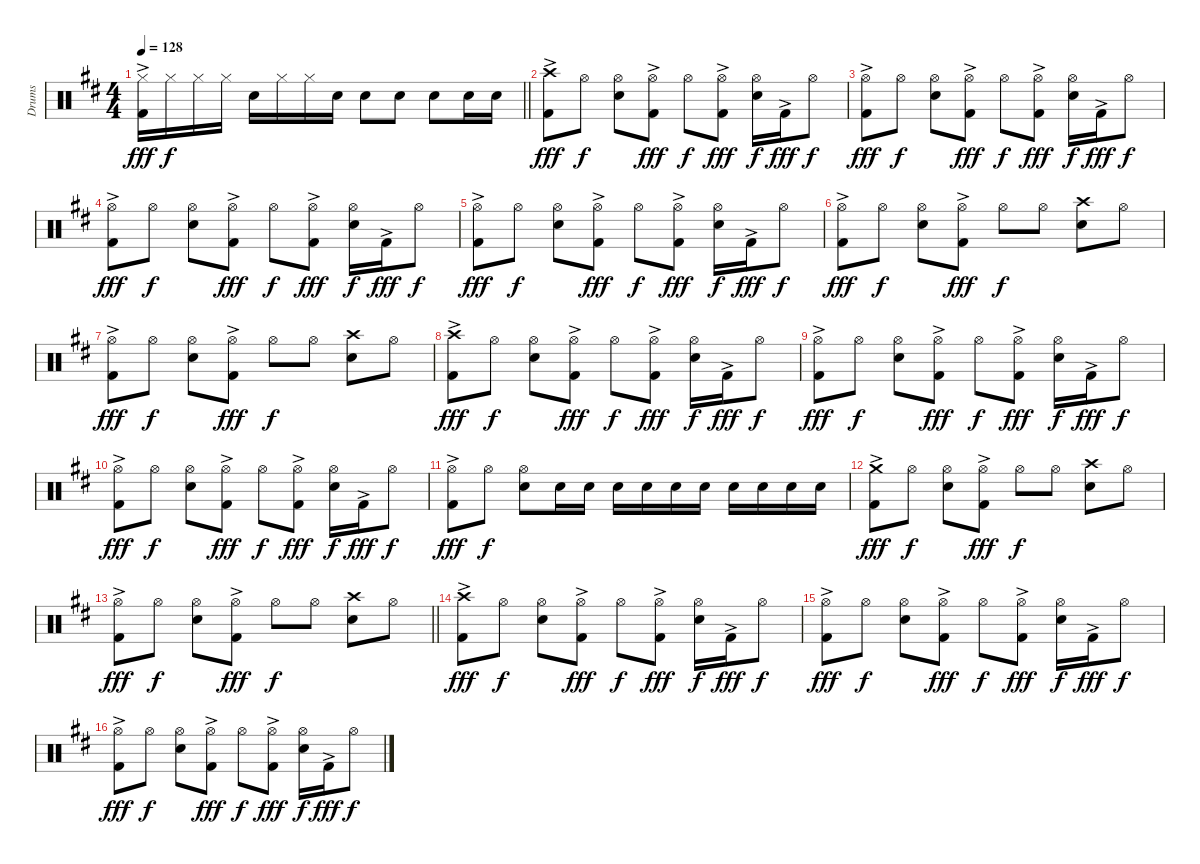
\track ("Drums" "Drums") {instrument percussion}
\staff {score}
\articulation defaults
\ts (4 4)
\tempo 128
\clef neutral
\barLineRight lightlight
\ks d
("Hi-Hat (closed)" "Kick (hit) 2"{ac}).16{dy fff} "Hi-Hat (closed)".16{dy f} "Hi-Hat (closed)".16 "Hi-Hat (closed)".16 "Snare (hit) 2".16 "Hi-Hat (closed)".16 "Hi-Hat (closed)".16 "Snare (hit) 2".16 "Snare (hit) 2".8 "Snare (hit) 2".8 "Snare (hit) 2".8 "Snare (hit) 2".16 "Snare (hit) 2".16 |
("Crash high (hit)" "Kick (hit) 2"{ac}).8{dy fff} "Hi-Hat (open)".8{dy f} ("Hi-Hat (open)" "Snare (hit) 2").8 ("Hi-Hat (open)" "Kick (hit) 2"{ac}).8{dy fff} "Hi-Hat (open)".8{dy f} ("Hi-Hat (open)" "Kick (hit) 2"{ac}).8{dy fff} ("Hi-Hat (open)" "Snare (hit) 2").16{dy f} "Kick (hit) 2"{ac}.16{dy fff} "Hi-Hat (open)".8{dy f} |
("Hi-Hat (open)" "Kick (hit) 2"{ac}).8{dy fff} "Hi-Hat (open)".8{dy f} ("Hi-Hat (open)" "Snare (hit) 2").8 ("Hi-Hat (open)" "Kick (hit) 2"{ac}).8{dy fff} "Hi-Hat (open)".8{dy f} ("Hi-Hat (open)" "Kick (hit) 2"{ac}).8{dy fff} ("Hi-Hat (open)" "Snare (hit) 2").16{dy f} "Kick (hit) 2"{ac}.16{dy fff} "Hi-Hat (open)".8{dy f} |
("Hi-Hat (open)" "Kick (hit) 2"{ac}).8{dy fff} "Hi-Hat (open)".8{dy f} ("Hi-Hat (open)" "Snare (hit) 2").8 ("Hi-Hat (open)" "Kick (hit) 2"{ac}).8{dy fff} "Hi-Hat (open)".8{dy f} ("Hi-Hat (open)" "Kick (hit) 2"{ac}).8{dy fff} ("Hi-Hat (open)" "Snare (hit) 2").16{dy f} "Kick (hit) 2"{ac}.16{dy fff} "Hi-Hat (open)".8{dy f} |
("Hi-Hat (open)" "Kick (hit) 2"{ac}).8{dy fff} "Hi-Hat (open)".8{dy f} ("Hi-Hat (open)" "Snare (hit) 2").8 ("Hi-Hat (open)" "Kick (hit) 2"{ac}).8{dy fff} "Hi-Hat (open)".8{dy f} ("Hi-Hat (open)" "Kick (hit) 2"{ac}).8{dy fff} ("Hi-Hat (open)" "Snare (hit) 2").16{dy f} "Kick (hit) 2"{ac}.16{dy fff} "Hi-Hat (open)".8{dy f} |
("Hi-Hat (open)" "Kick (hit) 2"{ac}).8{dy fff} "Hi-Hat (open)".8{dy f} ("Hi-Hat (open)" "Snare (hit) 2").8 ("Hi-Hat (open)" "Kick (hit) 2"{ac}).8{dy fff} "Hi-Hat (open)".8{dy f} "Hi-Hat (open)".8 ("Crash high (hit)" "Snare (hit) 2").8 "Hi-Hat (open)".8 |
("Hi-Hat (open)" "Kick (hit) 2"{ac}).8{dy fff} "Hi-Hat (open)".8{dy f} ("Hi-Hat (open)" "Snare (hit) 2").8 ("Hi-Hat (open)" "Kick (hit) 2"{ac}).8{dy fff} "Hi-Hat (open)".8{dy f} "Hi-Hat (open)".8 ("Crash high (hit)" "Snare (hit) 2").8 "Hi-Hat (open)".8 |
("Crash high (hit)" "Kick (hit) 2"{ac}).8{dy fff} "Hi-Hat (open)".8{dy f} ("Hi-Hat (open)" "Snare (hit) 2").8 ("Hi-Hat (open)" "Kick (hit) 2"{ac}).8{dy fff} "Hi-Hat (open)".8{dy f} ("Hi-Hat (open)" "Kick (hit) 2"{ac}).8{dy fff} ("Hi-Hat (open)" "Snare (hit) 2").16{dy f} "Kick (hit) 2"{ac}.16{dy fff} "Hi-Hat (open)".8{dy f} |
("Hi-Hat (open)" "Kick (hit) 2"{ac}).8{dy fff} "Hi-Hat (open)".8{dy f} ("Hi-Hat (open)" "Snare (hit) 2").8 ("Hi-Hat (open)" "Kick (hit) 2"{ac}).8{dy fff} "Hi-Hat (open)".8{dy f} ("Hi-Hat (open)" "Kick (hit) 2"{ac}).8{dy fff} ("Hi-Hat (open)" "Snare (hit) 2").16{dy f} "Kick (hit) 2"{ac}.16{dy fff} "Hi-Hat (open)".8{dy f} |
("Hi-Hat (open)" "Kick (hit) 2"{ac}).8{dy fff} "Hi-Hat (open)".8{dy f} ("Hi-Hat (open)" "Snare (hit) 2").8 ("Hi-Hat (open)" "Kick (hit) 2"{ac}).8{dy fff} "Hi-Hat (open)".8{dy f} ("Hi-Hat (open)" "Kick (hit) 2"{ac}).8{dy fff} ("Hi-Hat (open)" "Snare (hit) 2").16{dy f} "Kick (hit) 2"{ac}.16{dy fff} "Hi-Hat (open)".8{dy f} |
("Hi-Hat (open)" "Kick (hit) 2"{ac}).8{dy fff} "Hi-Hat (open)".8{dy f} ("Hi-Hat (open)" "Snare (hit) 2").8 "Snare (hit) 2".16 "Snare (hit) 2".16 "Snare (hit) 2".16 "Snare (hit) 2".16 "Snare (hit) 2".16 "Snare (hit) 2".16 "Snare (hit) 2".16 "Snare (hit) 2".16 "Snare (hit) 2".16 "Snare (hit) 2".16 |
("Crash medium (hit)" "Kick (hit) 2"{ac}).8{dy fff} "Hi-Hat (open)".8{dy f} ("Hi-Hat (open)" "Snare (hit) 2").8 ("Hi-Hat (open)" "Kick (hit) 2"{ac}).8{dy fff} "Hi-Hat (open)".8{dy f} "Hi-Hat (open)".8 ("Crash high (hit)" "Snare (hit) 2").8 "Hi-Hat (open)".8 |
\barLineRight lightlight
("Hi-Hat (open)" "Kick (hit) 2"{ac}).8{dy fff} "Hi-Hat (open)".8{dy f} ("Hi-Hat (open)" "Snare (hit) 2").8 ("Hi-Hat (open)" "Kick (hit) 2"{ac}).8{dy fff} "Hi-Hat (open)".8{dy f} "Hi-Hat (open)".8 ("Crash high (hit)" "Snare (hit) 2").8 "Hi-Hat (open)".8 |
("Crash high (hit)" "Kick (hit) 2"{ac}).8{dy fff} "Hi-Hat (open)".8{dy f} ("Hi-Hat (open)" "Snare (hit) 2").8 ("Hi-Hat (open)" "Kick (hit) 2"{ac}).8{dy fff} "Hi-Hat (open)".8{dy f} ("Hi-Hat (open)" "Kick (hit) 2"{ac}).8{dy fff} ("Hi-Hat (open)" "Snare (hit) 2").16{dy f} "Kick (hit) 2"{ac}.16{dy fff} "Hi-Hat (open)".8{dy f} |
("Hi-Hat (open)" "Kick (hit) 2"{ac}).8{dy fff} "Hi-Hat (open)".8{dy f} ("Hi-Hat (open)" "Snare (hit) 2").8 ("Hi-Hat (open)" "Kick (hit) 2"{ac}).8{dy fff} "Hi-Hat (open)".8{dy f} ("Hi-Hat (open)" "Kick (hit) 2"{ac}).8{dy fff} ("Hi-Hat (open)" "Snare (hit) 2").16{dy f} "Kick (hit) 2"{ac}.16{dy fff} "Hi-Hat (open)".8{dy f} |
("Hi-Hat (open)" "Kick (hit) 2"{ac}).8{dy fff} "Hi-Hat (open)".8{dy f} ("Hi-Hat (open)" "Snare (hit) 2").8 ("Hi-Hat (open)" "Kick (hit) 2"{ac}).8{dy fff} "Hi-Hat (open)".8{dy f} ("Hi-Hat (open)" "Kick (hit) 2"{ac}).8{dy fff} ("Hi-Hat (open)" "Snare (hit) 2").16{dy f} "Kick (hit) 2"{ac}.16{dy fff} "Hi-Hat (open)".8{dy f}
